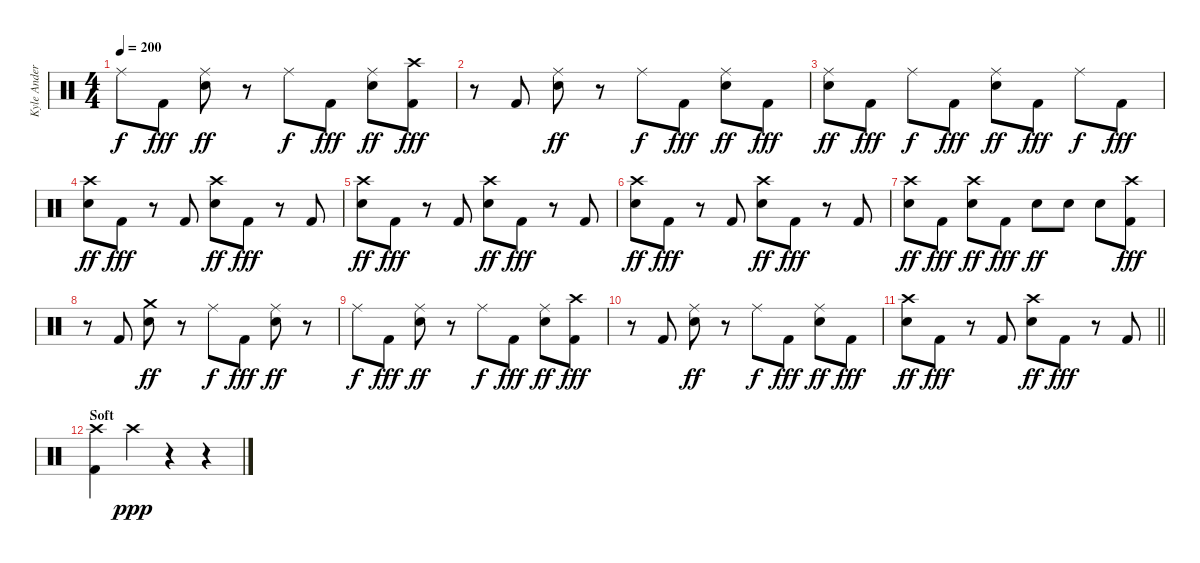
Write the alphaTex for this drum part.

\track ("Kyle Anderson" "Kyle Ander") {instrument percussion}
\staff {score}
\articulation defaults
\ts (4 4)
\tempo 200
\clef neutral
\ks c "Ride (middle)".8{dy f} "Kick (hit) 2".8{dy fff}
("Ride (middle)" "Electric Snare (hit)").8{dy ff} r.8 "Ride (middle)".8{dy f} "Kick (hit) 2".8{dy fff} ("Ride (middle)" "Electric Snare (hit)").8{dy ff} ("Crash high (hit)" "Kick (hit) 2").8{dy fff} |
r.8 "Kick (hit) 2".8 ("Ride (middle)" "Electric Snare (hit)").8{dy ff} r.8 "Ride (middle)".8{dy f} "Kick (hit) 2".8{dy fff} ("Ride (middle)" "Electric Snare (hit)").8{dy ff} "Kick (hit) 2".8{dy fff} |
("Ride (middle)" "Electric Snare (hit)").8{dy ff} "Kick (hit) 2".8{dy fff} "Ride (middle)".8{dy f} "Kick (hit) 2".8{dy fff} ("Ride (middle)" "Electric Snare (hit)").8{dy ff} "Kick (hit) 2".8{dy fff} "Ride (middle)".8{dy f} "Kick (hit) 2".8{dy fff} |
("Crash high (hit)" "Electric Snare (hit)").8{dy ff} "Kick (hit) 2".8{dy fff} r.8 "Kick (hit) 2".8 ("Crash high (hit)" "Electric Snare (hit)").8{dy ff} "Kick (hit) 2".8{dy fff} r.8 "Kick (hit) 2".8 |
("Crash high (hit)" "Electric Snare (hit)").8{dy ff} "Kick (hit) 2".8{dy fff} r.8 "Kick (hit) 2".8 ("Crash high (hit)" "Electric Snare (hit)").8{dy ff} "Kick (hit) 2".8{dy fff} r.8 "Kick (hit) 2".8 |
("Crash high (hit)" "Electric Snare (hit)").8{dy ff} "Kick (hit) 2".8{dy fff} r.8 "Kick (hit) 2".8 ("Crash high (hit)" "Electric Snare (hit)").8{dy ff} "Kick (hit) 2".8{dy fff} r.8 "Kick (hit) 2".8 |
("Crash high (hit)" "Electric Snare (hit)").8{dy ff} "Kick (hit) 2".8{dy fff} ("Crash high (hit)" "Electric Snare (hit)").8{dy ff} "Kick (hit) 2".8{dy fff} "Electric Snare (hit)".8{dy ff} "Electric Snare (hit)".8 "Electric Snare (hit)".8 ("Crash high (hit)" "Kick (hit) 2").8{dy fff} |
r.8 "Kick (hit) 2".8 ("Crash medium (hit)" "Electric Snare (hit)").8{dy ff} r.8 "Ride (middle)".8{dy f} "Kick (hit) 2".8{dy fff} ("Ride (middle)" "Electric Snare (hit)").8{dy ff} r.8 |
"Ride (middle)".8{dy f} "Kick (hit) 2".8{dy fff} ("Ride (middle)" "Electric Snare (hit)").8{dy ff} r.8 "Ride (middle)".8{dy f} "Kick (hit) 2".8{dy fff} ("Ride (middle)" "Electric Snare (hit)").8{dy ff} ("Crash high (hit)" "Kick (hit) 2").8{dy fff} |
r.8 "Kick (hit) 2".8 ("Ride (middle)" "Electric Snare (hit)").8{dy ff} r.8 "Ride (middle)".8{dy f} "Kick (hit) 2".8{dy fff} ("Ride (middle)" "Electric Snare (hit)").8{dy ff} "Kick (hit) 2".8{dy fff} |
\barLineRight lightlight
("Crash high (hit)" "Electric Snare (hit)").8{dy ff} "Kick (hit) 2".8{dy fff} r.8 "Kick (hit) 2".8 ("Crash high (hit)" "Electric Snare (hit)").8{dy ff} "Kick (hit) 2".8{dy fff} r.8 "Kick (hit) 2".8 |
\section ("" "Soft")
("Crash high (hit)" "Kick (hit) 2").4 "Crash high (hit)".4{dy ppp} r.4 r.4
